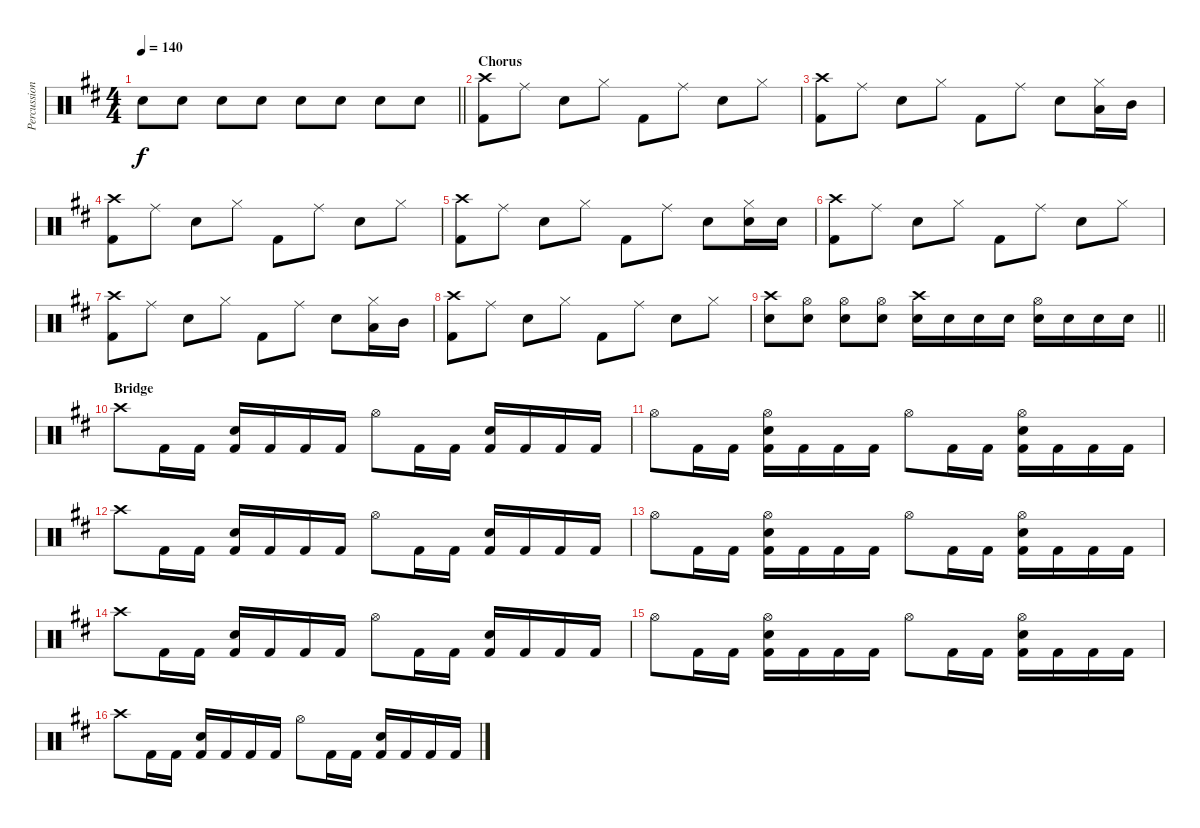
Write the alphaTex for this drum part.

\track ("Percussion" "Percussion") {instrument percussion}
\staff {score}
\articulation defaults
\ts (4 4)
\tempo 140
\clef neutral
\barLineRight lightlight
\ks d "Snare (hit) 2".8{dy f} "Snare (hit) 2".8 "Snare (hit) 2".8 "Snare (hit) 2".8 "Snare (hit) 2".8 "Snare (hit) 2".8 "Snare (hit) 2".8 "Snare (hit) 2".8
|
\section ("" "Chorus")
\ks bminor
("Crash high (hit)" "Kick (hit) 2").8 "Ride (middle)".8 "Snare (hit) 2".8 "Hi-Hat (closed)".8 "Kick (hit) 2".8 "Ride (middle)".8 "Snare (hit) 2".8 "Hi-Hat (closed)".8 |
("Crash high (hit)" "Kick (hit) 2").8 "Ride (middle)".8 "Snare (hit) 2".8 "Hi-Hat (closed)".8 "Kick (hit) 2".8 "Ride (middle)".8 "Snare (hit) 2".8 ("Hi-Hat (closed)" "Low Tom (hit)").16 "Mid Tom (hit)".16 |
("Crash high (hit)" "Kick (hit) 2").8 "Ride (middle)".8 "Snare (hit) 2".8 "Hi-Hat (closed)".8 "Kick (hit) 2".8 "Ride (middle)".8 "Snare (hit) 2".8 "Hi-Hat (closed)".8 |
("Crash high (hit)" "Kick (hit) 2").8 "Ride (middle)".8 "Snare (hit) 2".8 "Hi-Hat (closed)".8 "Kick (hit) 2".8 "Ride (middle)".8 "Snare (hit) 2".8 ("Hi-Hat (closed)" "Snare (hit) 2").16 "Snare (hit) 2".16 |
("Crash high (hit)" "Kick (hit) 2").8 "Ride (middle)".8 "Snare (hit) 2".8 "Hi-Hat (closed)".8 "Kick (hit) 2".8 "Ride (middle)".8 "Snare (hit) 2".8 "Hi-Hat (closed)".8 |
("Crash high (hit)" "Kick (hit) 2").8 "Ride (middle)".8 "Snare (hit) 2".8 "Hi-Hat (closed)".8 "Kick (hit) 2".8 "Ride (middle)".8 "Snare (hit) 2".8 ("Hi-Hat (closed)" "Low Tom (hit)").16 "Mid Tom (hit)".16 |
("Crash high (hit)" "Kick (hit) 2").8 "Ride (middle)".8 "Snare (hit) 2".8 "Hi-Hat (closed)".8 "Kick (hit) 2".8 "Ride (middle)".8 "Snare (hit) 2".8 "Hi-Hat (closed)".8 |
\barLineRight lightlight
("Crash high (hit)" "Snare (hit) 2").8 ("Hi-Hat (open)" "Snare (hit) 2").8 ("Hi-Hat (open)" "Snare (hit) 2").8 ("Hi-Hat (open)" "Snare (hit) 2").8 ("Crash high (hit)" "Snare (hit) 2").16 "Snare (hit) 2".16 "Snare (hit) 2".16 "Snare (hit) 2".16 ("Hi-Hat (open)" "Snare (hit) 2").16 "Snare (hit) 2".16 "Snare (hit) 2".16 "Snare (hit) 2".16 |
\section ("" "Bridge")
"Crash high (hit)".8 "Kick (hit) 2".16 "Kick (hit) 2".16 ("Snare (hit) 2" "Kick (hit) 2").16 "Kick (hit) 2".16 "Kick (hit) 2".16 "Kick (hit) 2".16 "Hi-Hat (open)".8 "Kick (hit) 2".16 "Kick (hit) 2".16 ("Snare (hit) 2" "Kick (hit) 2").16 "Kick (hit) 2".16 "Kick (hit) 2".16 "Kick (hit) 2".16 |
"Hi-Hat (open)".8 "Kick (hit) 2".16 "Kick (hit) 2".16 ("Hi-Hat (open)" "Snare (hit) 2" "Kick (hit) 2").16 "Kick (hit) 2".16 "Kick (hit) 2".16 "Kick (hit) 2".16 "Hi-Hat (open)".8 "Kick (hit) 2".16 "Kick (hit) 2".16 ("Hi-Hat (open)" "Snare (hit) 2" "Kick (hit) 2").16 "Kick (hit) 2".16 "Kick (hit) 2".16 "Kick (hit) 2".16 |
"Crash high (hit)".8 "Kick (hit) 2".16 "Kick (hit) 2".16 ("Snare (hit) 2" "Kick (hit) 2").16 "Kick (hit) 2".16 "Kick (hit) 2".16 "Kick (hit) 2".16 "Hi-Hat (open)".8 "Kick (hit) 2".16 "Kick (hit) 2".16 ("Snare (hit) 2" "Kick (hit) 2").16 "Kick (hit) 2".16 "Kick (hit) 2".16 "Kick (hit) 2".16 |
"Hi-Hat (open)".8 "Kick (hit) 2".16 "Kick (hit) 2".16 ("Hi-Hat (open)" "Snare (hit) 2" "Kick (hit) 2").16 "Kick (hit) 2".16 "Kick (hit) 2".16 "Kick (hit) 2".16 "Hi-Hat (open)".8 "Kick (hit) 2".16 "Kick (hit) 2".16 ("Hi-Hat (open)" "Snare (hit) 2" "Kick (hit) 2").16 "Kick (hit) 2".16 "Kick (hit) 2".16 "Kick (hit) 2".16 |
"Crash high (hit)".8 "Kick (hit) 2".16 "Kick (hit) 2".16 ("Snare (hit) 2" "Kick (hit) 2").16 "Kick (hit) 2".16 "Kick (hit) 2".16 "Kick (hit) 2".16 "Hi-Hat (open)".8 "Kick (hit) 2".16 "Kick (hit) 2".16 ("Snare (hit) 2" "Kick (hit) 2").16 "Kick (hit) 2".16 "Kick (hit) 2".16 "Kick (hit) 2".16 |
"Hi-Hat (open)".8 "Kick (hit) 2".16 "Kick (hit) 2".16 ("Hi-Hat (open)" "Snare (hit) 2" "Kick (hit) 2").16 "Kick (hit) 2".16 "Kick (hit) 2".16 "Kick (hit) 2".16 "Hi-Hat (open)".8 "Kick (hit) 2".16 "Kick (hit) 2".16 ("Hi-Hat (open)" "Snare (hit) 2" "Kick (hit) 2").16 "Kick (hit) 2".16 "Kick (hit) 2".16 "Kick (hit) 2".16 |
"Crash high (hit)".8 "Kick (hit) 2".16 "Kick (hit) 2".16 ("Snare (hit) 2" "Kick (hit) 2").16 "Kick (hit) 2".16 "Kick (hit) 2".16 "Kick (hit) 2".16 "Hi-Hat (open)".8 "Kick (hit) 2".16 "Kick (hit) 2".16 ("Snare (hit) 2" "Kick (hit) 2").16 "Kick (hit) 2".16 "Kick (hit) 2".16 "Kick (hit) 2".16
